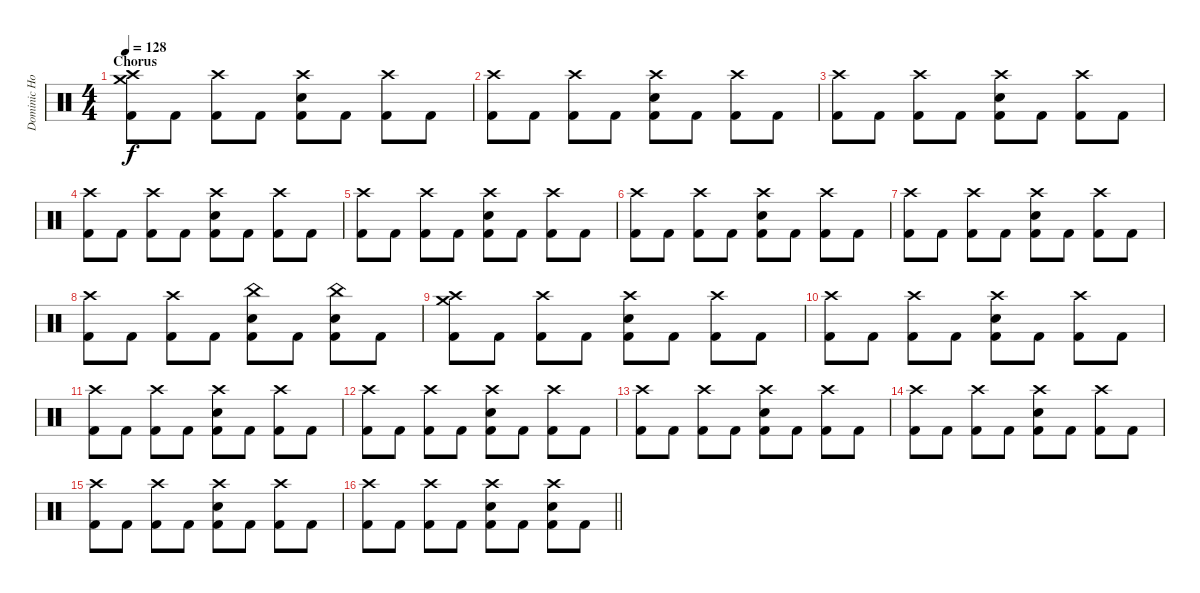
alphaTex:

\track ("Dominic Howard (Drums)" "Dominic Ho") {instrument percussion}
\staff {score}
\articulation defaults
\ts (4 4)
\section ("" "Chorus")
\tempo 128
\clef neutral
\ks c
("Crash medium (hit)" "Crash high (hit)" "Kick (hit) 2").8{dy f} "Kick (hit) 2".8 ("Crash high (hit)" "Kick (hit) 2").8 "Kick (hit) 2".8 ("Crash high (hit)" "Electric Snare (hit)" "Kick (hit) 2").8 "Kick (hit) 2".8 ("Crash high (hit)" "Kick (hit) 2").8 "Kick (hit) 2".8 |
("Crash high (hit)" "Kick (hit) 2").8 "Kick (hit) 2".8 ("Crash high (hit)" "Kick (hit) 2").8 "Kick (hit) 2".8 ("Crash high (hit)" "Electric Snare (hit)" "Kick (hit) 2").8 "Kick (hit) 2".8 ("Crash high (hit)" "Kick (hit) 2").8 "Kick (hit) 2".8 |
("Crash high (hit)" "Kick (hit) 2").8 "Kick (hit) 2".8 ("Crash high (hit)" "Kick (hit) 2").8 "Kick (hit) 2".8 ("Crash high (hit)" "Electric Snare (hit)" "Kick (hit) 2").8 "Kick (hit) 2".8 ("Crash high (hit)" "Kick (hit) 2").8 "Kick (hit) 2".8 |
("Crash high (hit)" "Kick (hit) 2").8 "Kick (hit) 2".8 ("Crash high (hit)" "Kick (hit) 2").8 "Kick (hit) 2".8 ("Crash high (hit)" "Electric Snare (hit)" "Kick (hit) 2").8 "Kick (hit) 2".8 ("Crash high (hit)" "Kick (hit) 2").8 "Kick (hit) 2".8 |
("Crash high (hit)" "Kick (hit) 2").8 "Kick (hit) 2".8 ("Crash high (hit)" "Kick (hit) 2").8 "Kick (hit) 2".8 ("Crash high (hit)" "Electric Snare (hit)" "Kick (hit) 2").8 "Kick (hit) 2".8 ("Crash high (hit)" "Kick (hit) 2").8 "Kick (hit) 2".8 |
("Crash high (hit)" "Kick (hit) 2").8 "Kick (hit) 2".8 ("Crash high (hit)" "Kick (hit) 2").8 "Kick (hit) 2".8 ("Crash high (hit)" "Electric Snare (hit)" "Kick (hit) 2").8 "Kick (hit) 2".8 ("Crash high (hit)" "Kick (hit) 2").8 "Kick (hit) 2".8 |
("Crash high (hit)" "Kick (hit) 2").8 "Kick (hit) 2".8 ("Crash high (hit)" "Kick (hit) 2").8 "Kick (hit) 2".8 ("Crash high (hit)" "Electric Snare (hit)" "Kick (hit) 2").8 "Kick (hit) 2".8 ("Crash high (hit)" "Kick (hit) 2").8 "Kick (hit) 2".8 |
("Crash high (hit)" "Kick (hit) 2").8 "Kick (hit) 2".8 ("Crash high (hit)" "Kick (hit) 2").8 "Kick (hit) 2".8 ("China (hit)" "Electric Snare (hit)" "Kick (hit) 2").8 "Kick (hit) 2".8 ("China (hit)" "Electric Snare (hit)" "Kick (hit) 2").8 "Kick (hit) 2".8 |
("Crash high (hit)" "Crash medium (hit)" "Kick (hit) 2").8 "Kick (hit) 2".8 ("Crash high (hit)" "Kick (hit) 2").8 "Kick (hit) 2".8 ("Crash high (hit)" "Electric Snare (hit)" "Kick (hit) 2").8 "Kick (hit) 2".8 ("Crash high (hit)" "Kick (hit) 2").8 "Kick (hit) 2".8 |
("Crash high (hit)" "Kick (hit) 2").8 "Kick (hit) 2".8 ("Crash high (hit)" "Kick (hit) 2").8 "Kick (hit) 2".8 ("Crash high (hit)" "Electric Snare (hit)" "Kick (hit) 2").8 "Kick (hit) 2".8 ("Crash high (hit)" "Kick (hit) 2").8 "Kick (hit) 2".8 |
("Crash high (hit)" "Kick (hit) 2").8 "Kick (hit) 2".8 ("Crash high (hit)" "Kick (hit) 2").8 "Kick (hit) 2".8 ("Crash high (hit)" "Electric Snare (hit)" "Kick (hit) 2").8 "Kick (hit) 2".8 ("Crash high (hit)" "Kick (hit) 2").8 "Kick (hit) 2".8 |
("Crash high (hit)" "Kick (hit) 2").8 "Kick (hit) 2".8 ("Crash high (hit)" "Kick (hit) 2").8 "Kick (hit) 2".8 ("Crash high (hit)" "Electric Snare (hit)" "Kick (hit) 2").8 "Kick (hit) 2".8 ("Crash high (hit)" "Kick (hit) 2").8 "Kick (hit) 2".8 |
("Crash high (hit)" "Kick (hit) 2").8 "Kick (hit) 2".8 ("Crash high (hit)" "Kick (hit) 2").8 "Kick (hit) 2".8 ("Crash high (hit)" "Electric Snare (hit)" "Kick (hit) 2").8 "Kick (hit) 2".8 ("Crash high (hit)" "Kick (hit) 2").8 "Kick (hit) 2".8 |
("Crash high (hit)" "Kick (hit) 2").8 "Kick (hit) 2".8 ("Crash high (hit)" "Kick (hit) 2").8 "Kick (hit) 2".8 ("Crash high (hit)" "Electric Snare (hit)" "Kick (hit) 2").8 "Kick (hit) 2".8 ("Crash high (hit)" "Kick (hit) 2").8 "Kick (hit) 2".8 |
("Crash high (hit)" "Kick (hit) 2").8 "Kick (hit) 2".8 ("Crash high (hit)" "Kick (hit) 2").8 "Kick (hit) 2".8 ("Crash high (hit)" "Electric Snare (hit)" "Kick (hit) 2").8 "Kick (hit) 2".8 ("Crash high (hit)" "Kick (hit) 2").8 "Kick (hit) 2".8 |
\barLineRight lightlight
("Crash high (hit)" "Kick (hit) 2").8 "Kick (hit) 2".8 ("Crash high (hit)" "Kick (hit) 2").8 "Kick (hit) 2".8 ("Crash high (hit)" "Electric Snare (hit)" "Kick (hit) 2").8 "Kick (hit) 2".8 ("Crash high (hit)" "Electric Snare (hit)" "Kick (hit) 2").8 "Kick (hit) 2".8
